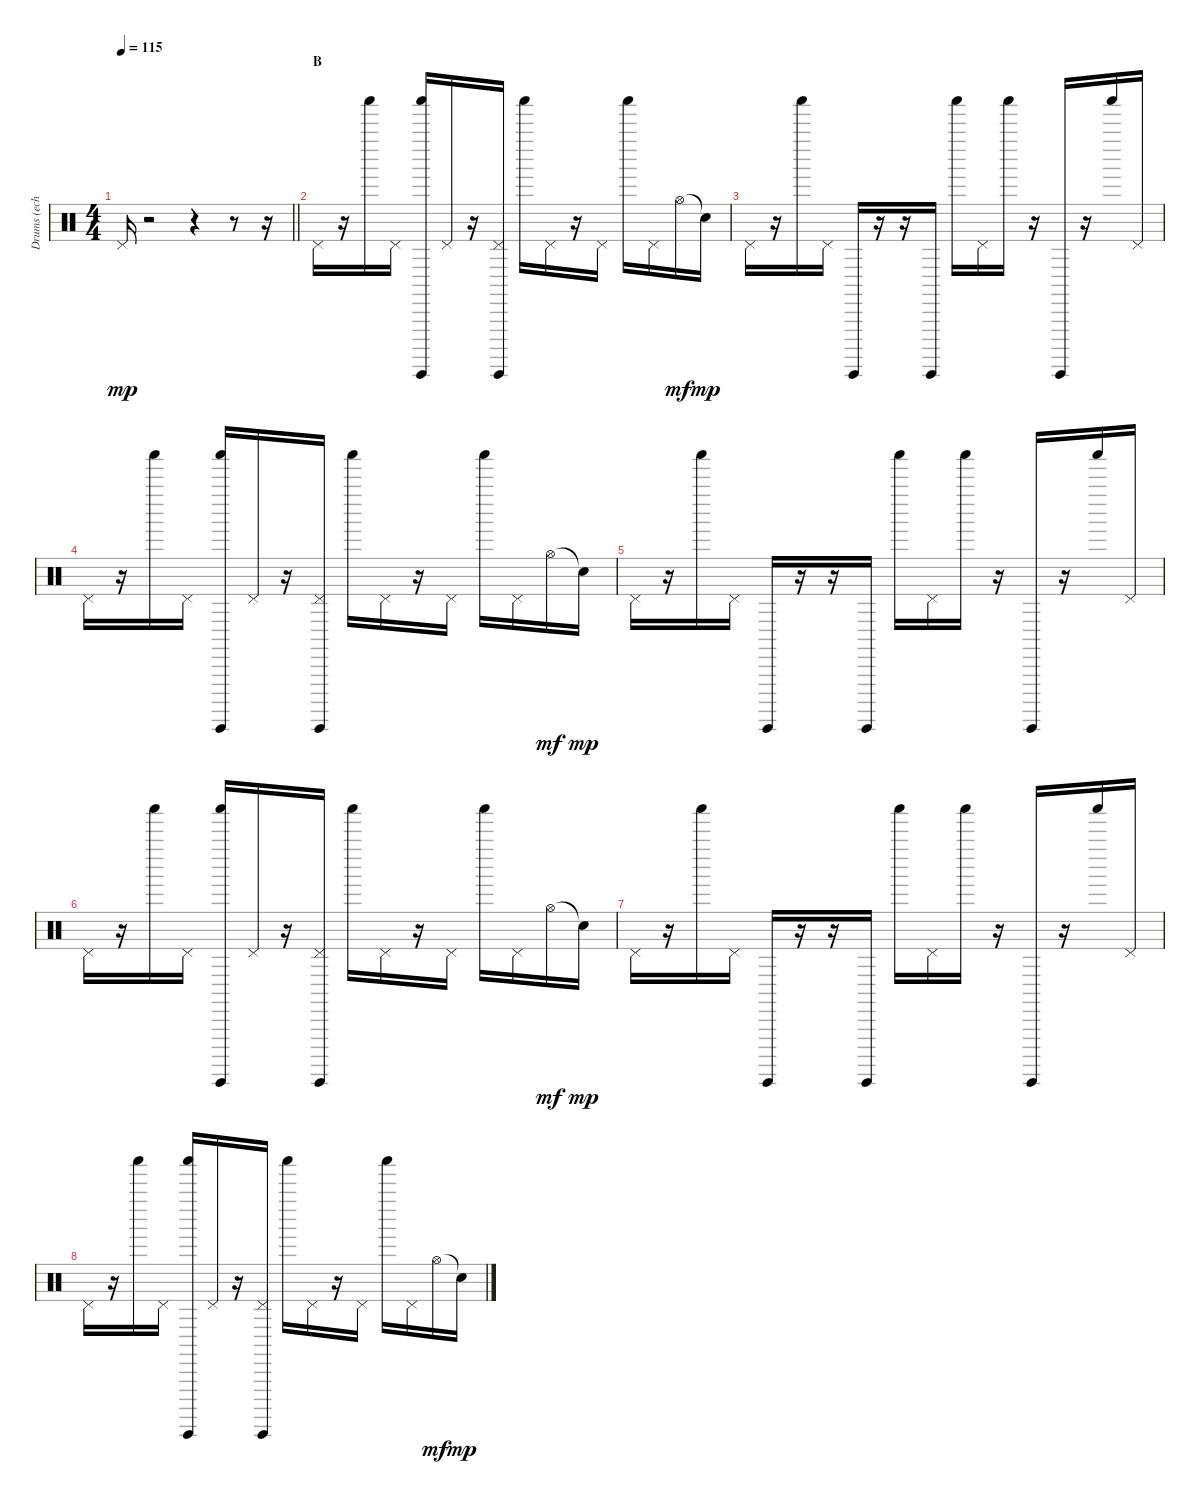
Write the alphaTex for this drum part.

\track ("Drums (echo)" "Drums (ech") {instrument percussion}
\staff {score}
\articulation defaults
\ts (4 4)
\tempo 115
\clef neutral
\barLineRight lightlight
\ks c "Pedal Hi-Hat (hit)".16{dy mp balance 6}
r.2 r.4 r.8 r.16 |
\section ("" "B")
"Pedal Hi-Hat (hit)".16 r.16 "Shaker (hit)".16 "Pedal Hi-Hat (hit)".16 ("Shaker (hit)" "Guiro (hit)").16 "Pedal Hi-Hat (hit)".16 r.16 ("Pedal Hi-Hat (hit)" "Guiro (hit)").16 "Shaker (hit)".16 "Pedal Hi-Hat (hit)".16 r.16 "Pedal Hi-Hat (hit)".16 "Shaker (hit)".16 "Pedal Hi-Hat (hit)".16 "Hi-Hat (open)".16{dy mf balance 11} "Snare (hit)"{t}.16{dy mp} |
"Pedal Hi-Hat (hit)".16{balance 6} r.16 "Shaker (hit)".16 "Pedal Hi-Hat (hit)".16 "Guiro (hit)".16 r.16 r.16 "Guiro (hit)".16 "Shaker (hit)".16 "Pedal Hi-Hat (hit)".16 "Shaker (hit)".16 r.16 "Guiro (hit)".16 r.16 "Shaker (hit)".16 "Pedal Hi-Hat (hit)".16 |
"Pedal Hi-Hat (hit)".16 r.16 "Shaker (hit)".16 "Pedal Hi-Hat (hit)".16 ("Shaker (hit)" "Guiro (hit)").16 "Pedal Hi-Hat (hit)".16 r.16 ("Pedal Hi-Hat (hit)" "Guiro (hit)").16 "Shaker (hit)".16 "Pedal Hi-Hat (hit)".16 r.16 "Pedal Hi-Hat (hit)".16 "Shaker (hit)".16 "Pedal Hi-Hat (hit)".16 "Hi-Hat (open)".16{dy mf balance 11} "Snare (hit)"{t}.16{dy mp} |
"Pedal Hi-Hat (hit)".16{balance 6} r.16 "Shaker (hit)".16 "Pedal Hi-Hat (hit)".16 "Guiro (hit)".16 r.16 r.16 "Guiro (hit)".16 "Shaker (hit)".16 "Pedal Hi-Hat (hit)".16 "Shaker (hit)".16 r.16 "Guiro (hit)".16 r.16 "Shaker (hit)".16 "Pedal Hi-Hat (hit)".16 |
"Pedal Hi-Hat (hit)".16 r.16 "Shaker (hit)".16 "Pedal Hi-Hat (hit)".16 ("Shaker (hit)" "Guiro (hit)").16 "Pedal Hi-Hat (hit)".16 r.16 ("Pedal Hi-Hat (hit)" "Guiro (hit)").16 "Shaker (hit)".16 "Pedal Hi-Hat (hit)".16 r.16 "Pedal Hi-Hat (hit)".16 "Shaker (hit)".16 "Pedal Hi-Hat (hit)".16 "Hi-Hat (open)".16{dy mf balance 11} "Snare (hit)"{t}.16{dy mp} |
"Pedal Hi-Hat (hit)".16{balance 6} r.16 "Shaker (hit)".16 "Pedal Hi-Hat (hit)".16 "Guiro (hit)".16 r.16 r.16 "Guiro (hit)".16 "Shaker (hit)".16 "Pedal Hi-Hat (hit)".16 "Shaker (hit)".16 r.16 "Guiro (hit)".16 r.16 "Shaker (hit)".16 "Pedal Hi-Hat (hit)".16 |
"Pedal Hi-Hat (hit)".16 r.16 "Shaker (hit)".16 "Pedal Hi-Hat (hit)".16 ("Shaker (hit)" "Guiro (hit)").16 "Pedal Hi-Hat (hit)".16 r.16 ("Pedal Hi-Hat (hit)" "Guiro (hit)").16 "Shaker (hit)".16 "Pedal Hi-Hat (hit)".16 r.16 "Pedal Hi-Hat (hit)".16 "Shaker (hit)".16 "Pedal Hi-Hat (hit)".16 "Hi-Hat (open)".16{dy mf balance 11} "Snare (hit)"{t}.16{dy mp}
